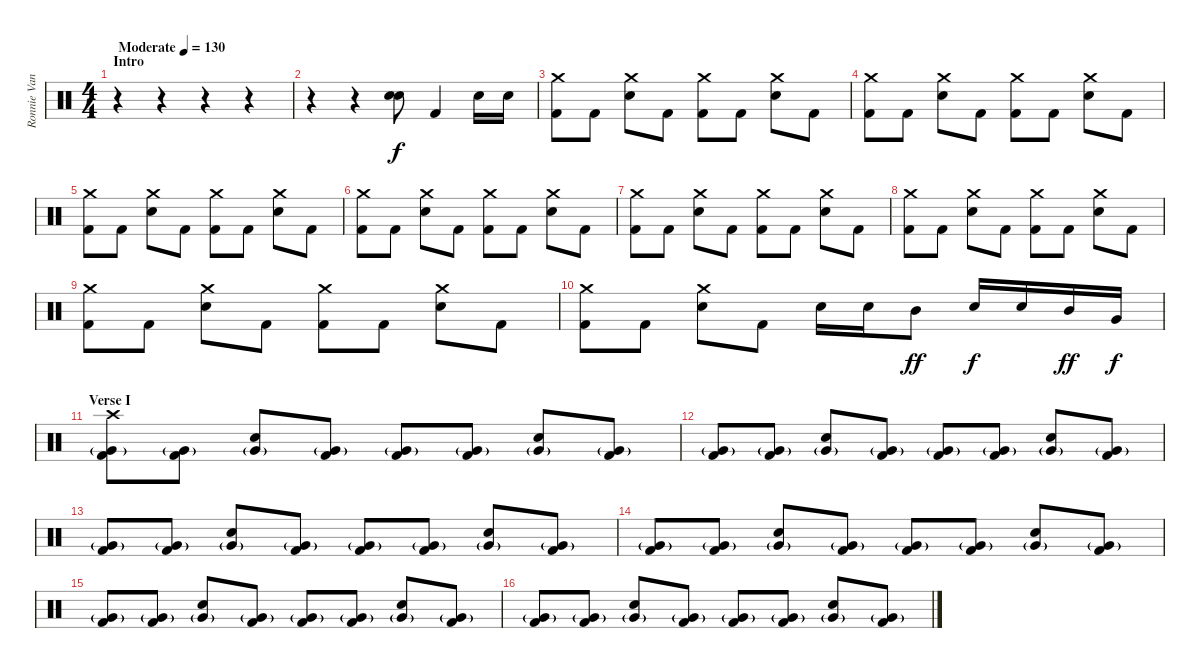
\track ("Ronnie Vannucci Jr." "Ronnie Van") {instrument percussion}
\staff {score}
\articulation defaults
\ts (4 4)
\section ("" "Intro")
\tempo (130 "Moderate")
\clef neutral
\ks c
r.4{dy f} r.4 r.4 r.4 |
r.4 r.4 ("Electric Snare (hit)" "Electric Snare (hit)").8{bu 120} "Kick (hit) 2".4 "Electric Snare (hit)".16 "Electric Snare (hit)".16 |
("Crash medium (hit)" "Kick (hit) 2").8 "Kick (hit) 2".8 ("Crash medium (hit)" "Electric Snare (hit)").8 "Kick (hit) 2".8 ("Crash medium (hit)" "Kick (hit) 2").8 "Kick (hit) 2".8 ("Crash medium (hit)" "Electric Snare (hit)").8 "Kick (hit) 2".8 |
("Crash medium (hit)" "Kick (hit) 2").8 "Kick (hit) 2".8 ("Crash medium (hit)" "Electric Snare (hit)").8 "Kick (hit) 2".8 ("Crash medium (hit)" "Kick (hit) 2").8 "Kick (hit) 2".8 ("Crash medium (hit)" "Electric Snare (hit)").8 "Kick (hit) 2".8 |
("Crash medium (hit)" "Kick (hit) 2").8 "Kick (hit) 2".8 ("Crash medium (hit)" "Electric Snare (hit)").8 "Kick (hit) 2".8 ("Crash medium (hit)" "Kick (hit) 2").8 "Kick (hit) 2".8 ("Crash medium (hit)" "Electric Snare (hit)").8 "Kick (hit) 2".8 |
("Crash medium (hit)" "Kick (hit) 2").8 "Kick (hit) 2".8 ("Crash medium (hit)" "Electric Snare (hit)").8 "Kick (hit) 2".8 ("Crash medium (hit)" "Kick (hit) 2").8 "Kick (hit) 2".8 ("Crash medium (hit)" "Electric Snare (hit)").8 "Kick (hit) 2".8 |
("Crash medium (hit)" "Kick (hit) 2").8 "Kick (hit) 2".8 ("Crash medium (hit)" "Electric Snare (hit)").8 "Kick (hit) 2".8 ("Crash medium (hit)" "Kick (hit) 2").8 "Kick (hit) 2".8 ("Crash medium (hit)" "Electric Snare (hit)").8 "Kick (hit) 2".8 |
("Crash medium (hit)" "Kick (hit) 2").8 "Kick (hit) 2".8 ("Crash medium (hit)" "Electric Snare (hit)").8 "Kick (hit) 2".8 ("Crash medium (hit)" "Kick (hit) 2").8 "Kick (hit) 2".8 ("Crash medium (hit)" "Electric Snare (hit)").8 "Kick (hit) 2".8 |
("Crash medium (hit)" "Kick (hit) 2").8 "Kick (hit) 2".8 ("Crash medium (hit)" "Electric Snare (hit)").8 "Kick (hit) 2".8 ("Crash medium (hit)" "Kick (hit) 2").8 "Kick (hit) 2".8 ("Crash medium (hit)" "Electric Snare (hit)").8 "Kick (hit) 2".8 |
("Crash medium (hit)" "Kick (hit) 2").8 "Kick (hit) 2".8 ("Crash medium (hit)" "Electric Snare (hit)").8 "Kick (hit) 2".8 "Electric Snare (hit)".16 "Electric Snare (hit)".16 "Mid Tom (hit)".8{dy ff} "Electric Snare (hit)".16{dy f} "Electric Snare (hit)".16 "Mid Tom (hit)".16{dy ff} "Very Low Tom (hit)".16{dy f} |
\section ("" "Verse I")
("Crash high (hit)" "Very Low Tom (hit)"{g} "Kick (hit) 2").8 ("Very Low Tom (hit)"{g} "Kick (hit) 2").8 ("Very Low Tom (hit)"{g} "Electric Snare (hit)").8 ("Very Low Tom (hit)"{g} "Kick (hit) 2").8 ("Very Low Tom (hit)"{g} "Kick (hit) 2").8 ("Very Low Tom (hit)"{g} "Kick (hit) 2").8 ("Very Low Tom (hit)"{g} "Electric Snare (hit)").8 ("Very Low Tom (hit)"{g} "Kick (hit) 2").8 |
("Very Low Tom (hit)"{g} "Kick (hit) 2").8 ("Very Low Tom (hit)"{g} "Kick (hit) 2").8 ("Very Low Tom (hit)"{g} "Electric Snare (hit)").8 ("Very Low Tom (hit)"{g} "Kick (hit) 2").8 ("Very Low Tom (hit)"{g} "Kick (hit) 2").8 ("Very Low Tom (hit)"{g} "Kick (hit) 2").8 ("Very Low Tom (hit)"{g} "Electric Snare (hit)").8 ("Very Low Tom (hit)"{g} "Kick (hit) 2").8 |
("Very Low Tom (hit)"{g} "Kick (hit) 2").8 ("Very Low Tom (hit)"{g} "Kick (hit) 2").8 ("Very Low Tom (hit)"{g} "Electric Snare (hit)").8 ("Very Low Tom (hit)"{g} "Kick (hit) 2").8 ("Very Low Tom (hit)"{g} "Kick (hit) 2").8 ("Very Low Tom (hit)"{g} "Kick (hit) 2").8 ("Very Low Tom (hit)"{g} "Electric Snare (hit)").8 ("Very Low Tom (hit)"{g} "Kick (hit) 2").8 |
("Very Low Tom (hit)"{g} "Kick (hit) 2").8 ("Very Low Tom (hit)"{g} "Kick (hit) 2").8 ("Very Low Tom (hit)"{g} "Electric Snare (hit)").8 ("Very Low Tom (hit)"{g} "Kick (hit) 2").8 ("Very Low Tom (hit)"{g} "Kick (hit) 2").8 ("Very Low Tom (hit)"{g} "Kick (hit) 2").8 ("Very Low Tom (hit)"{g} "Electric Snare (hit)").8 ("Very Low Tom (hit)"{g} "Kick (hit) 2").8 |
("Very Low Tom (hit)"{g} "Kick (hit) 2").8 ("Very Low Tom (hit)"{g} "Kick (hit) 2").8 ("Very Low Tom (hit)"{g} "Electric Snare (hit)").8 ("Very Low Tom (hit)"{g} "Kick (hit) 2").8 ("Very Low Tom (hit)"{g} "Kick (hit) 2").8 ("Very Low Tom (hit)"{g} "Kick (hit) 2").8 ("Very Low Tom (hit)"{g} "Electric Snare (hit)").8 ("Very Low Tom (hit)"{g} "Kick (hit) 2").8 |
("Very Low Tom (hit)"{g} "Kick (hit) 2").8 ("Very Low Tom (hit)"{g} "Kick (hit) 2").8 ("Very Low Tom (hit)"{g} "Electric Snare (hit)").8 ("Very Low Tom (hit)"{g} "Kick (hit) 2").8 ("Very Low Tom (hit)"{g} "Kick (hit) 2").8 ("Very Low Tom (hit)"{g} "Kick (hit) 2").8 ("Very Low Tom (hit)"{g} "Electric Snare (hit)").8 ("Very Low Tom (hit)"{g} "Kick (hit) 2").8
